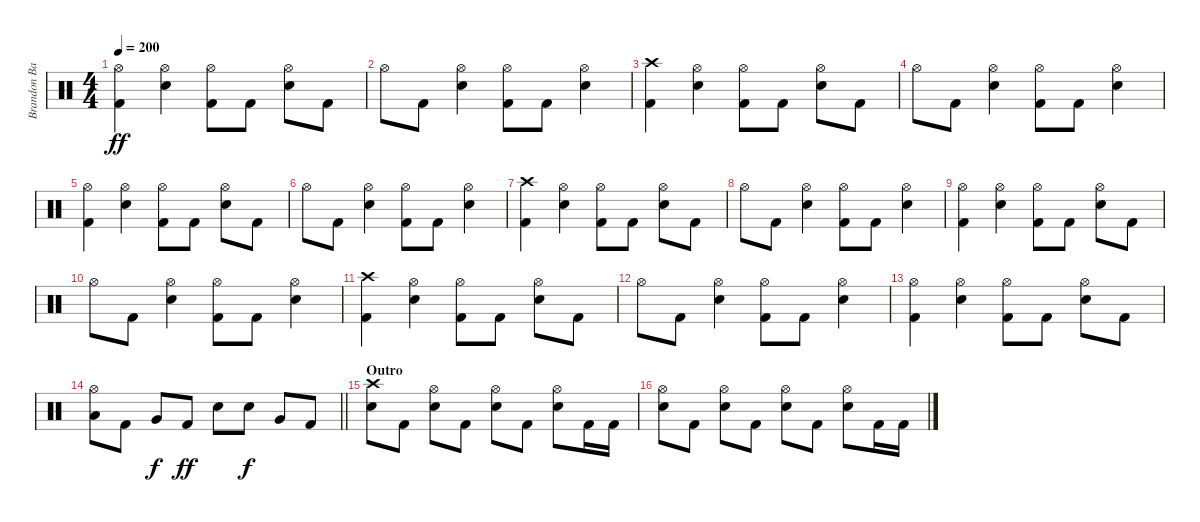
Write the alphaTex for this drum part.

\track ("Brandon Barnes - Drums" "Brandon Ba") {instrument percussion}
\staff {score}
\articulation defaults
\ts (4 4)
\tempo 200
\clef neutral
\ks c
("Kick (hit) 2" "Hi-Hat (open)").4{dy ff} ("Snare (hit) 2" "Hi-Hat (open)").4 ("Kick (hit) 2" "Hi-Hat (open)").8 "Kick (hit) 2".8 ("Snare (hit) 2" "Hi-Hat (open)").8 "Kick (hit) 2".8 |
"Hi-Hat (open)".8 "Kick (hit) 2".8 ("Snare (hit) 2" "Hi-Hat (open)").4 ("Kick (hit) 2" "Hi-Hat (open)").8 "Kick (hit) 2".8 ("Snare (hit) 2" "Hi-Hat (open)").4 |
("Kick (hit) 2" "Crash high (hit)").4 ("Snare (hit) 2" "Hi-Hat (open)").4 ("Kick (hit) 2" "Hi-Hat (open)").8 "Kick (hit) 2".8 ("Snare (hit) 2" "Hi-Hat (open)").8 "Kick (hit) 2".8 |
"Hi-Hat (open)".8 "Kick (hit) 2".8 ("Snare (hit) 2" "Hi-Hat (open)").4 ("Kick (hit) 2" "Hi-Hat (open)").8 "Kick (hit) 2".8 ("Snare (hit) 2" "Hi-Hat (open)").4 |
("Kick (hit) 2" "Hi-Hat (open)").4 ("Snare (hit) 2" "Hi-Hat (open)").4 ("Kick (hit) 2" "Hi-Hat (open)").8 "Kick (hit) 2".8 ("Snare (hit) 2" "Hi-Hat (open)").8 "Kick (hit) 2".8 |
"Hi-Hat (open)".8 "Kick (hit) 2".8 ("Snare (hit) 2" "Hi-Hat (open)").4 ("Kick (hit) 2" "Hi-Hat (open)").8 "Kick (hit) 2".8 ("Snare (hit) 2" "Hi-Hat (open)").4 |
("Kick (hit) 2" "Crash high (hit)").4 ("Snare (hit) 2" "Hi-Hat (open)").4 ("Kick (hit) 2" "Hi-Hat (open)").8 "Kick (hit) 2".8 ("Snare (hit) 2" "Hi-Hat (open)").8 "Kick (hit) 2".8 |
"Hi-Hat (open)".8 "Kick (hit) 2".8 ("Snare (hit) 2" "Hi-Hat (open)").4 ("Kick (hit) 2" "Hi-Hat (open)").8 "Kick (hit) 2".8 ("Snare (hit) 2" "Hi-Hat (open)").4 |
("Kick (hit) 2" "Hi-Hat (open)").4 ("Snare (hit) 2" "Hi-Hat (open)").4 ("Kick (hit) 2" "Hi-Hat (open)").8 "Kick (hit) 2".8 ("Snare (hit) 2" "Hi-Hat (open)").8 "Kick (hit) 2".8 |
"Hi-Hat (open)".8 "Kick (hit) 2".8 ("Snare (hit) 2" "Hi-Hat (open)").4 ("Kick (hit) 2" "Hi-Hat (open)").8 "Kick (hit) 2".8 ("Snare (hit) 2" "Hi-Hat (open)").4 |
("Kick (hit) 2" "Crash high (hit)").4 ("Snare (hit) 2" "Hi-Hat (open)").4 ("Kick (hit) 2" "Hi-Hat (open)").8 "Kick (hit) 2".8 ("Snare (hit) 2" "Hi-Hat (open)").8 "Kick (hit) 2".8 |
"Hi-Hat (open)".8 "Kick (hit) 2".8 ("Snare (hit) 2" "Hi-Hat (open)").4 ("Kick (hit) 2" "Hi-Hat (open)").8 "Kick (hit) 2".8 ("Snare (hit) 2" "Hi-Hat (open)").4 |
("Kick (hit) 2" "Hi-Hat (open)").4 ("Snare (hit) 2" "Hi-Hat (open)").4 ("Kick (hit) 2" "Hi-Hat (open)").8 "Kick (hit) 2".8 ("Snare (hit) 2" "Hi-Hat (open)").8 "Kick (hit) 2".8 |
\barLineRight lightlight
("Hi-Hat (open)" "Low Tom (hit)").8 "Kick (hit) 2".8 "Very Low Tom (hit)".8{dy f} "Kick (hit) 2".8{dy ff} "Snare (hit) 2".8 "Snare (hit) 2".8{dy f} "Very Low Tom (hit)".8 "Kick (hit) 2".8 |
\section ("" "Outro")
("Crash high (hit)" "Snare (hit) 2").8 "Kick (hit) 2".8 ("Snare (hit) 2" "Hi-Hat (open)").8 "Kick (hit) 2".8 ("Snare (hit) 2" "Hi-Hat (open)").8 "Kick (hit) 2".8 ("Snare (hit) 2" "Hi-Hat (open)").8 "Kick (hit) 2".16 "Kick (hit) 2".16 |
("Snare (hit) 2" "Hi-Hat (open)").8 "Kick (hit) 2".8 ("Snare (hit) 2" "Hi-Hat (open)").8 "Kick (hit) 2".8 ("Snare (hit) 2" "Hi-Hat (open)").8 "Kick (hit) 2".8 ("Snare (hit) 2" "Hi-Hat (open)").8 "Kick (hit) 2".16 "Kick (hit) 2".16
